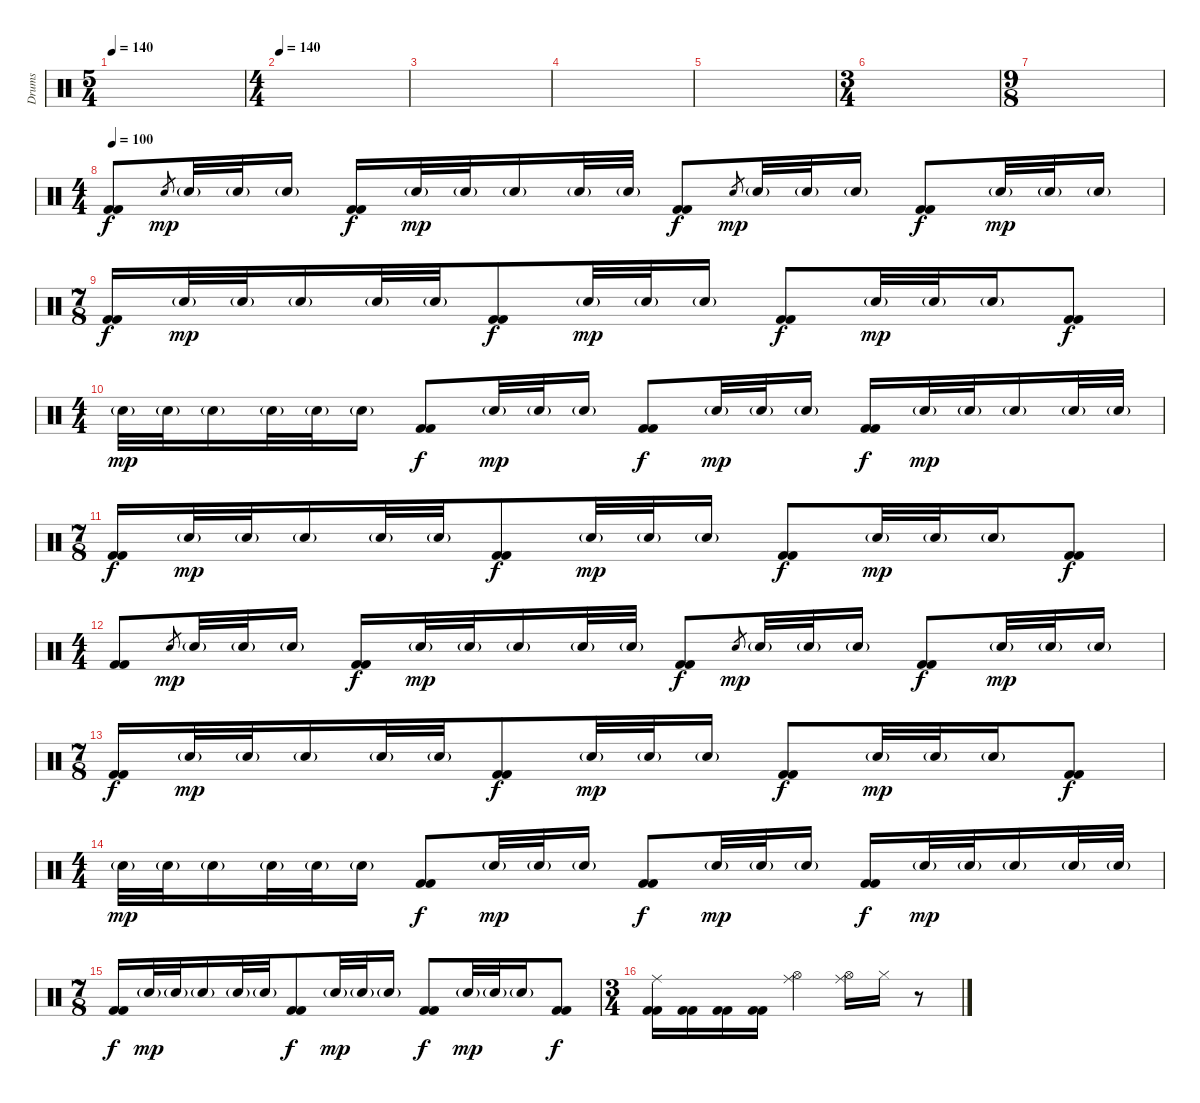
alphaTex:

\track ("Drums" "Drums") {instrument percussion}
\staff {score}
\articulation defaults
\ts (5 4)
\tempo 140
\clef neutral
\ks c
|
\ts (4 4)
\tempo 140
|
|
|
|
\ts (3 4)
|
\ts (9 8)
|
\ts (4 4)
\tempo 100
("Kick (hit) 2" "Kick (hit) 2").8 "Snare (hit) 2".8{gr dy mp} "Snare (hit) 2"{g}.32 "Snare (hit) 2"{g}.32 "Snare (hit) 2"{g}.16 ("Kick (hit) 2" "Kick (hit) 2").16{dy f} "Snare (hit) 2"{g}.32{dy mp} "Snare (hit) 2"{g}.32 "Snare (hit) 2"{g}.16 "Snare (hit) 2"{g}.32 "Snare (hit) 2"{g}.32 ("Kick (hit) 2" "Kick (hit) 2").8{dy f} "Snare (hit) 2".8{gr dy mp} "Snare (hit) 2"{g}.32 "Snare (hit) 2"{g}.32 "Snare (hit) 2"{g}.16 ("Kick (hit) 2" "Kick (hit) 2").8{dy f} "Snare (hit) 2"{g}.32{dy mp} "Snare (hit) 2"{g}.32 "Snare (hit) 2"{g}.16 |
\ts (7 8)
("Kick (hit) 2" "Kick (hit) 2").16{dy f} "Snare (hit) 2"{g}.32{dy mp} "Snare (hit) 2"{g}.32 "Snare (hit) 2"{g}.16 "Snare (hit) 2"{g}.32 "Snare (hit) 2"{g}.32 ("Kick (hit) 2" "Kick (hit) 2").8{dy f} "Snare (hit) 2"{g}.32{dy mp} "Snare (hit) 2"{g}.32 "Snare (hit) 2"{g}.16 ("Kick (hit) 2" "Kick (hit) 2").8{dy f} "Snare (hit) 2"{g}.32{dy mp} "Snare (hit) 2"{g}.32 "Snare (hit) 2"{g}.16 ("Kick (hit) 2" "Kick (hit) 2").8{dy f} |
\ts (4 4)
"Snare (hit) 2"{g}.32{dy mp} "Snare (hit) 2"{g}.32 "Snare (hit) 2"{g}.16 "Snare (hit) 2"{g}.32 "Snare (hit) 2"{g}.32 "Snare (hit) 2"{g}.16 ("Kick (hit) 2" "Kick (hit) 2").8{dy f} "Snare (hit) 2"{g}.32{dy mp} "Snare (hit) 2"{g}.32 "Snare (hit) 2"{g}.16 ("Kick (hit) 2" "Kick (hit) 2").8{dy f} "Snare (hit) 2"{g}.32{dy mp} "Snare (hit) 2"{g}.32 "Snare (hit) 2"{g}.16 ("Kick (hit) 2" "Kick (hit) 2").16{dy f} "Snare (hit) 2"{g}.32{dy mp} "Snare (hit) 2"{g}.32 "Snare (hit) 2"{g}.16 "Snare (hit) 2"{g}.32 "Snare (hit) 2"{g}.32 |
\ts (7 8)
("Kick (hit) 2" "Kick (hit) 2").16{dy f} "Snare (hit) 2"{g}.32{dy mp} "Snare (hit) 2"{g}.32 "Snare (hit) 2"{g}.16 "Snare (hit) 2"{g}.32 "Snare (hit) 2"{g}.32 ("Kick (hit) 2" "Kick (hit) 2").8{dy f} "Snare (hit) 2"{g}.32{dy mp} "Snare (hit) 2"{g}.32 "Snare (hit) 2"{g}.16 ("Kick (hit) 2" "Kick (hit) 2").8{dy f} "Snare (hit) 2"{g}.32{dy mp} "Snare (hit) 2"{g}.32 "Snare (hit) 2"{g}.16 ("Kick (hit) 2" "Kick (hit) 2").8{dy f} |
\ts (4 4)
("Kick (hit) 2" "Kick (hit) 2").8 "Snare (hit) 2".8{gr dy mp} "Snare (hit) 2"{g}.32 "Snare (hit) 2"{g}.32 "Snare (hit) 2"{g}.16 ("Kick (hit) 2" "Kick (hit) 2").16{dy f} "Snare (hit) 2"{g}.32{dy mp} "Snare (hit) 2"{g}.32 "Snare (hit) 2"{g}.16 "Snare (hit) 2"{g}.32 "Snare (hit) 2"{g}.32 ("Kick (hit) 2" "Kick (hit) 2").8{dy f} "Snare (hit) 2".8{gr dy mp} "Snare (hit) 2"{g}.32 "Snare (hit) 2"{g}.32 "Snare (hit) 2"{g}.16 ("Kick (hit) 2" "Kick (hit) 2").8{dy f} "Snare (hit) 2"{g}.32{dy mp} "Snare (hit) 2"{g}.32 "Snare (hit) 2"{g}.16 |
\ts (7 8)
("Kick (hit) 2" "Kick (hit) 2").16{dy f} "Snare (hit) 2"{g}.32{dy mp} "Snare (hit) 2"{g}.32 "Snare (hit) 2"{g}.16 "Snare (hit) 2"{g}.32 "Snare (hit) 2"{g}.32 ("Kick (hit) 2" "Kick (hit) 2").8{dy f} "Snare (hit) 2"{g}.32{dy mp} "Snare (hit) 2"{g}.32 "Snare (hit) 2"{g}.16 ("Kick (hit) 2" "Kick (hit) 2").8{dy f} "Snare (hit) 2"{g}.32{dy mp} "Snare (hit) 2"{g}.32 "Snare (hit) 2"{g}.16 ("Kick (hit) 2" "Kick (hit) 2").8{dy f} |
\ts (4 4)
"Snare (hit) 2"{g}.32{dy mp} "Snare (hit) 2"{g}.32 "Snare (hit) 2"{g}.16 "Snare (hit) 2"{g}.32 "Snare (hit) 2"{g}.32 "Snare (hit) 2"{g}.16 ("Kick (hit) 2" "Kick (hit) 2").8{dy f} "Snare (hit) 2"{g}.32{dy mp} "Snare (hit) 2"{g}.32 "Snare (hit) 2"{g}.16 ("Kick (hit) 2" "Kick (hit) 2").8{dy f} "Snare (hit) 2"{g}.32{dy mp} "Snare (hit) 2"{g}.32 "Snare (hit) 2"{g}.16 ("Kick (hit) 2" "Kick (hit) 2").16{dy f} "Snare (hit) 2"{g}.32{dy mp} "Snare (hit) 2"{g}.32 "Snare (hit) 2"{g}.16 "Snare (hit) 2"{g}.32 "Snare (hit) 2"{g}.32 |
\ts (7 8)
("Kick (hit) 2" "Kick (hit) 2").16{dy f} "Snare (hit) 2"{g}.32{dy mp} "Snare (hit) 2"{g}.32 "Snare (hit) 2"{g}.16 "Snare (hit) 2"{g}.32 "Snare (hit) 2"{g}.32 ("Kick (hit) 2" "Kick (hit) 2").8{dy f} "Snare (hit) 2"{g}.32{dy mp} "Snare (hit) 2"{g}.32 "Snare (hit) 2"{g}.16 ("Kick (hit) 2" "Kick (hit) 2").8{dy f} "Snare (hit) 2"{g}.32{dy mp} "Snare (hit) 2"{g}.32 "Snare (hit) 2"{g}.16 ("Kick (hit) 2" "Kick (hit) 2").8{dy f} |
\ts (3 4)
("Ride (middle)" "Kick (hit) 2" "Kick (hit) 2").16 ("Kick (hit) 2" "Kick (hit) 2").16 ("Kick (hit) 2" "Kick (hit) 2").16 ("Kick (hit) 2" "Kick (hit) 2").16 ("Ride (middle)" "Hi-Hat (open)").4 ("Ride (middle)" "Hi-Hat (open)").16 "Hi-Hat (closed)".16 r.8
